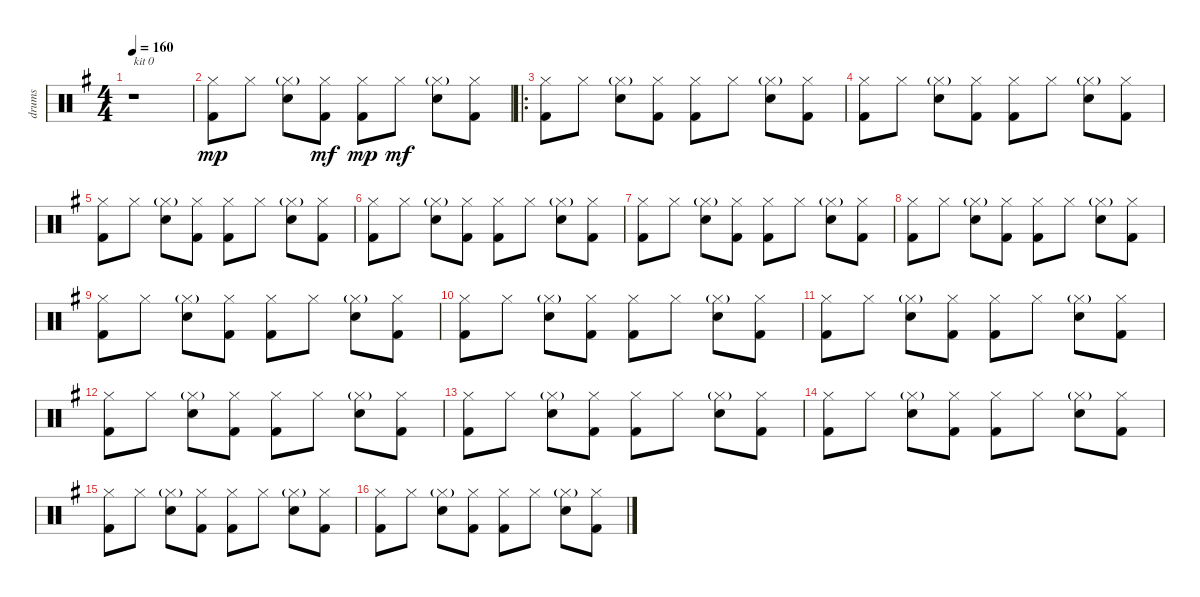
\track ("drums" "drums") {instrument percussion}
\staff {score}
\articulation defaults
\ts (4 4)
\tempo 160
\clef neutral
\ks g
r.1{txt "kit 0" dy mp} |
("Hi-Hat (closed)" "Kick (hit) 2").8 "Hi-Hat (closed)".8 ("Hi-Hat (closed)"{g} "Snare (hit) 2").8 ("Hi-Hat (closed)" "Kick (hit) 2").8{dy mf} ("Hi-Hat (closed)" "Kick (hit) 2").8{dy mp} "Hi-Hat (closed)".8{dy mf} ("Hi-Hat (closed)"{g} "Snare (hit) 2").8 ("Hi-Hat (closed)" "Kick (hit) 2").8 |
\ro
("Hi-Hat (closed)" "Kick (hit) 2").8 "Hi-Hat (closed)".8 ("Hi-Hat (closed)"{g} "Snare (hit) 2").8 ("Hi-Hat (closed)" "Kick (hit) 2").8 ("Hi-Hat (closed)" "Kick (hit) 2").8 "Hi-Hat (closed)".8 ("Hi-Hat (closed)"{g} "Snare (hit) 2").8 ("Hi-Hat (closed)" "Kick (hit) 2").8 |
("Hi-Hat (closed)" "Kick (hit) 2").8 "Hi-Hat (closed)".8 ("Hi-Hat (closed)"{g} "Snare (hit) 2").8 ("Hi-Hat (closed)" "Kick (hit) 2").8 ("Hi-Hat (closed)" "Kick (hit) 2").8 "Hi-Hat (closed)".8 ("Hi-Hat (closed)"{g} "Snare (hit) 2").8 ("Hi-Hat (closed)" "Kick (hit) 2").8 |
("Hi-Hat (closed)" "Kick (hit) 2").8 "Hi-Hat (closed)".8 ("Hi-Hat (closed)"{g} "Snare (hit) 2").8 ("Hi-Hat (closed)" "Kick (hit) 2").8 ("Hi-Hat (closed)" "Kick (hit) 2").8 "Hi-Hat (closed)".8 ("Hi-Hat (closed)"{g} "Snare (hit) 2").8 ("Hi-Hat (closed)" "Kick (hit) 2").8 |
("Hi-Hat (closed)" "Kick (hit) 2").8 "Hi-Hat (closed)".8 ("Hi-Hat (closed)"{g} "Snare (hit) 2").8 ("Hi-Hat (closed)" "Kick (hit) 2").8 ("Hi-Hat (closed)" "Kick (hit) 2").8 "Hi-Hat (closed)".8 ("Hi-Hat (closed)"{g} "Snare (hit) 2").8 ("Hi-Hat (closed)" "Kick (hit) 2").8 |
("Hi-Hat (closed)" "Kick (hit) 2").8 "Hi-Hat (closed)".8 ("Hi-Hat (closed)"{g} "Snare (hit) 2").8 ("Hi-Hat (closed)" "Kick (hit) 2").8 ("Hi-Hat (closed)" "Kick (hit) 2").8 "Hi-Hat (closed)".8 ("Hi-Hat (closed)"{g} "Snare (hit) 2").8 ("Hi-Hat (closed)" "Kick (hit) 2").8 |
("Hi-Hat (closed)" "Kick (hit) 2").8 "Hi-Hat (closed)".8 ("Hi-Hat (closed)"{g} "Snare (hit) 2").8 ("Hi-Hat (closed)" "Kick (hit) 2").8 ("Hi-Hat (closed)" "Kick (hit) 2").8 "Hi-Hat (closed)".8 ("Hi-Hat (closed)"{g} "Snare (hit) 2").8 ("Hi-Hat (closed)" "Kick (hit) 2").8 |
("Hi-Hat (closed)" "Kick (hit) 2").8 "Hi-Hat (closed)".8 ("Hi-Hat (closed)"{g} "Snare (hit) 2").8 ("Hi-Hat (closed)" "Kick (hit) 2").8 ("Hi-Hat (closed)" "Kick (hit) 2").8 "Hi-Hat (closed)".8 ("Hi-Hat (closed)"{g} "Snare (hit) 2").8 ("Hi-Hat (closed)" "Kick (hit) 2").8 |
("Hi-Hat (closed)" "Kick (hit) 2").8 "Hi-Hat (closed)".8 ("Hi-Hat (closed)"{g} "Snare (hit) 2").8 ("Hi-Hat (closed)" "Kick (hit) 2").8 ("Hi-Hat (closed)" "Kick (hit) 2").8 "Hi-Hat (closed)".8 ("Hi-Hat (closed)"{g} "Snare (hit) 2").8 ("Hi-Hat (closed)" "Kick (hit) 2").8 |
("Hi-Hat (closed)" "Kick (hit) 2").8 "Hi-Hat (closed)".8 ("Hi-Hat (closed)"{g} "Snare (hit) 2").8 ("Hi-Hat (closed)" "Kick (hit) 2").8 ("Hi-Hat (closed)" "Kick (hit) 2").8 "Hi-Hat (closed)".8 ("Hi-Hat (closed)"{g} "Snare (hit) 2").8 ("Hi-Hat (closed)" "Kick (hit) 2").8 |
("Hi-Hat (closed)" "Kick (hit) 2").8 "Hi-Hat (closed)".8 ("Hi-Hat (closed)"{g} "Snare (hit) 2").8 ("Hi-Hat (closed)" "Kick (hit) 2").8 ("Hi-Hat (closed)" "Kick (hit) 2").8 "Hi-Hat (closed)".8 ("Hi-Hat (closed)"{g} "Snare (hit) 2").8 ("Hi-Hat (closed)" "Kick (hit) 2").8 |
("Hi-Hat (closed)" "Kick (hit) 2").8 "Hi-Hat (closed)".8 ("Hi-Hat (closed)"{g} "Snare (hit) 2").8 ("Hi-Hat (closed)" "Kick (hit) 2").8 ("Hi-Hat (closed)" "Kick (hit) 2").8 "Hi-Hat (closed)".8 ("Hi-Hat (closed)"{g} "Snare (hit) 2").8 ("Hi-Hat (closed)" "Kick (hit) 2").8 |
("Hi-Hat (closed)" "Kick (hit) 2").8 "Hi-Hat (closed)".8 ("Hi-Hat (closed)"{g} "Snare (hit) 2").8 ("Hi-Hat (closed)" "Kick (hit) 2").8 ("Hi-Hat (closed)" "Kick (hit) 2").8 "Hi-Hat (closed)".8 ("Hi-Hat (closed)"{g} "Snare (hit) 2").8 ("Hi-Hat (closed)" "Kick (hit) 2").8 |
("Hi-Hat (closed)" "Kick (hit) 2").8 "Hi-Hat (closed)".8 ("Hi-Hat (closed)"{g} "Snare (hit) 2").8 ("Hi-Hat (closed)" "Kick (hit) 2").8 ("Hi-Hat (closed)" "Kick (hit) 2").8 "Hi-Hat (closed)".8 ("Hi-Hat (closed)"{g} "Snare (hit) 2").8 ("Hi-Hat (closed)" "Kick (hit) 2").8 |
("Hi-Hat (closed)" "Kick (hit) 2").8 "Hi-Hat (closed)".8 ("Hi-Hat (closed)"{g} "Snare (hit) 2").8 ("Hi-Hat (closed)" "Kick (hit) 2").8 ("Hi-Hat (closed)" "Kick (hit) 2").8 "Hi-Hat (closed)".8 ("Hi-Hat (closed)"{g} "Snare (hit) 2").8 ("Hi-Hat (closed)" "Kick (hit) 2").8
